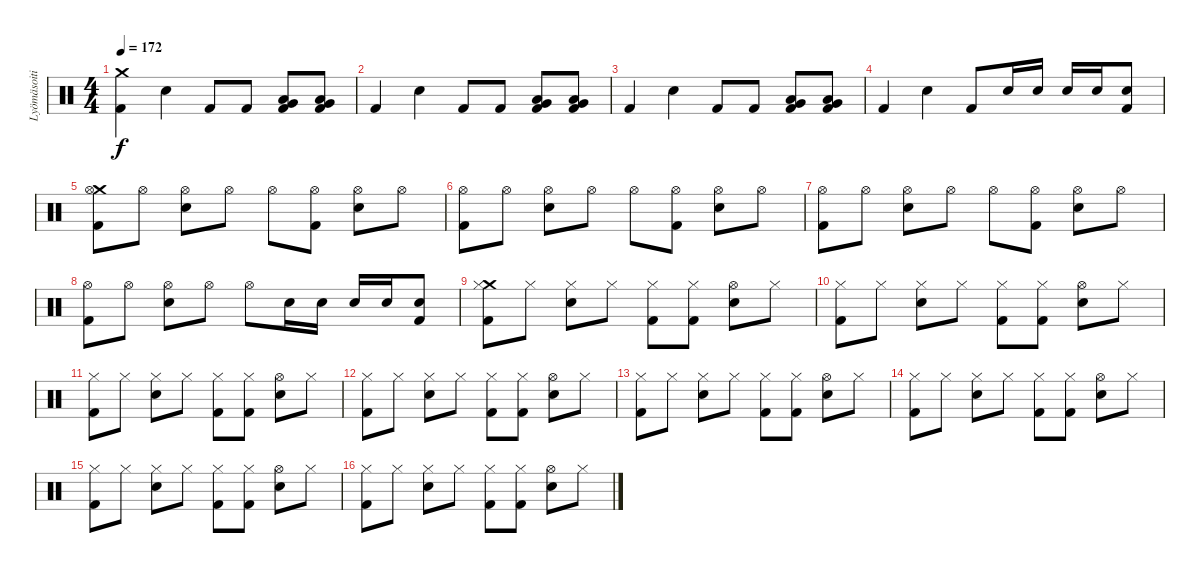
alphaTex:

\track ("Lyömäsoitin" "Lyömäsoiti") {instrument percussion}
\staff {score}
\articulation defaults
\ts (4 4)
\tempo 172
\clef neutral
\ks c
("Crash medium (hit)" "Kick (hit) 2").4{dy f} "Electric Snare (hit)".4 "Kick (hit) 2".8 "Kick (hit) 2".8 ("Low Tom (hit)" "Very Low Tom (hit)" "Kick (hit) 2").8 ("Very Low Tom (hit)" "Low Floor Tom (hit)" "Kick (hit) 2").8 |
"Kick (hit) 2".4 "Electric Snare (hit)".4 "Kick (hit) 2".8 "Kick (hit) 2".8 ("Low Tom (hit)" "Very Low Tom (hit)" "Kick (hit) 2").8 ("Very Low Tom (hit)" "Low Floor Tom (hit)" "Kick (hit) 2").8 |
"Kick (hit) 2".4 "Electric Snare (hit)".4 "Kick (hit) 2".8 "Kick (hit) 2".8 ("Low Tom (hit)" "Very Low Tom (hit)" "Kick (hit) 2").8 ("Very Low Tom (hit)" "Low Floor Tom (hit)" "Kick (hit) 2").8 |
"Kick (hit) 2".4 "Electric Snare (hit)".4 "Kick (hit) 2".8 "Electric Snare (hit)".16 "Electric Snare (hit)".16 "Electric Snare (hit)".16 "Electric Snare (hit)".16 ("Electric Snare (hit)" "Kick (hit) 2").8 |
("Crash medium (hit)" "Hi-Hat (open)" "Kick (hit) 2").8 "Hi-Hat (open)".8 ("Hi-Hat (open)" "Electric Snare (hit)").8 "Hi-Hat (open)".8 "Hi-Hat (open)".8 ("Hi-Hat (open)" "Kick (hit) 2").8 ("Hi-Hat (open)" "Electric Snare (hit)").8 "Hi-Hat (open)".8 |
("Hi-Hat (open)" "Kick (hit) 2").8 "Hi-Hat (open)".8 ("Hi-Hat (open)" "Electric Snare (hit)").8 "Hi-Hat (open)".8 "Hi-Hat (open)".8 ("Hi-Hat (open)" "Kick (hit) 2").8 ("Hi-Hat (open)" "Electric Snare (hit)").8 "Hi-Hat (open)".8 |
("Hi-Hat (open)" "Kick (hit) 2").8 "Hi-Hat (open)".8 ("Hi-Hat (open)" "Electric Snare (hit)").8 "Hi-Hat (open)".8 "Hi-Hat (open)".8 ("Hi-Hat (open)" "Kick (hit) 2").8 ("Hi-Hat (open)" "Electric Snare (hit)").8 "Hi-Hat (open)".8 |
("Hi-Hat (open)" "Kick (hit) 2").8 "Hi-Hat (open)".8 ("Hi-Hat (open)" "Electric Snare (hit)").8 "Hi-Hat (open)".8 "Hi-Hat (open)".8 "Electric Snare (hit)".16 "Electric Snare (hit)".16 "Electric Snare (hit)".16 "Electric Snare (hit)".16 ("Electric Snare (hit)" "Kick (hit) 2").8 |
("Crash medium (hit)" "Hi-Hat (closed)" "Kick (hit) 2").8 "Hi-Hat (closed)".8 ("Hi-Hat (closed)" "Electric Snare (hit)").8 "Hi-Hat (closed)".8 ("Hi-Hat (closed)" "Kick (hit) 2").8 ("Hi-Hat (closed)" "Kick (hit) 2").8 ("Hi-Hat (open)" "Electric Snare (hit)").8 "Hi-Hat (closed)".8 |
("Hi-Hat (closed)" "Kick (hit) 2").8 "Hi-Hat (closed)".8 ("Hi-Hat (closed)" "Electric Snare (hit)").8 "Hi-Hat (closed)".8 ("Hi-Hat (closed)" "Kick (hit) 2").8 ("Hi-Hat (closed)" "Kick (hit) 2").8 ("Hi-Hat (open)" "Electric Snare (hit)").8 "Hi-Hat (closed)".8 |
("Hi-Hat (closed)" "Kick (hit) 2").8 "Hi-Hat (closed)".8 ("Hi-Hat (closed)" "Electric Snare (hit)").8 "Hi-Hat (closed)".8 ("Hi-Hat (closed)" "Kick (hit) 2").8 ("Hi-Hat (closed)" "Kick (hit) 2").8 ("Hi-Hat (open)" "Electric Snare (hit)").8 "Hi-Hat (closed)".8 |
("Hi-Hat (closed)" "Kick (hit) 2").8 "Hi-Hat (closed)".8 ("Hi-Hat (closed)" "Electric Snare (hit)").8 "Hi-Hat (closed)".8 ("Hi-Hat (closed)" "Kick (hit) 2").8 ("Hi-Hat (closed)" "Kick (hit) 2").8 ("Hi-Hat (open)" "Electric Snare (hit)").8 "Hi-Hat (closed)".8 |
("Hi-Hat (closed)" "Kick (hit) 2").8 "Hi-Hat (closed)".8 ("Hi-Hat (closed)" "Electric Snare (hit)").8 "Hi-Hat (closed)".8 ("Hi-Hat (closed)" "Kick (hit) 2").8 ("Hi-Hat (closed)" "Kick (hit) 2").8 ("Hi-Hat (open)" "Electric Snare (hit)").8 "Hi-Hat (closed)".8 |
("Hi-Hat (closed)" "Kick (hit) 2").8 "Hi-Hat (closed)".8 ("Hi-Hat (closed)" "Electric Snare (hit)").8 "Hi-Hat (closed)".8 ("Hi-Hat (closed)" "Kick (hit) 2").8 ("Hi-Hat (closed)" "Kick (hit) 2").8 ("Hi-Hat (open)" "Electric Snare (hit)").8 "Hi-Hat (closed)".8 |
("Hi-Hat (closed)" "Kick (hit) 2").8 "Hi-Hat (closed)".8 ("Hi-Hat (closed)" "Electric Snare (hit)").8 "Hi-Hat (closed)".8 ("Hi-Hat (closed)" "Kick (hit) 2").8 ("Hi-Hat (closed)" "Kick (hit) 2").8 ("Hi-Hat (open)" "Electric Snare (hit)").8 "Hi-Hat (closed)".8 |
("Hi-Hat (closed)" "Kick (hit) 2").8 "Hi-Hat (closed)".8 ("Hi-Hat (closed)" "Electric Snare (hit)").8 "Hi-Hat (closed)".8 ("Hi-Hat (closed)" "Kick (hit) 2").8 ("Hi-Hat (closed)" "Kick (hit) 2").8 ("Hi-Hat (open)" "Electric Snare (hit)").8 "Hi-Hat (closed)".8
